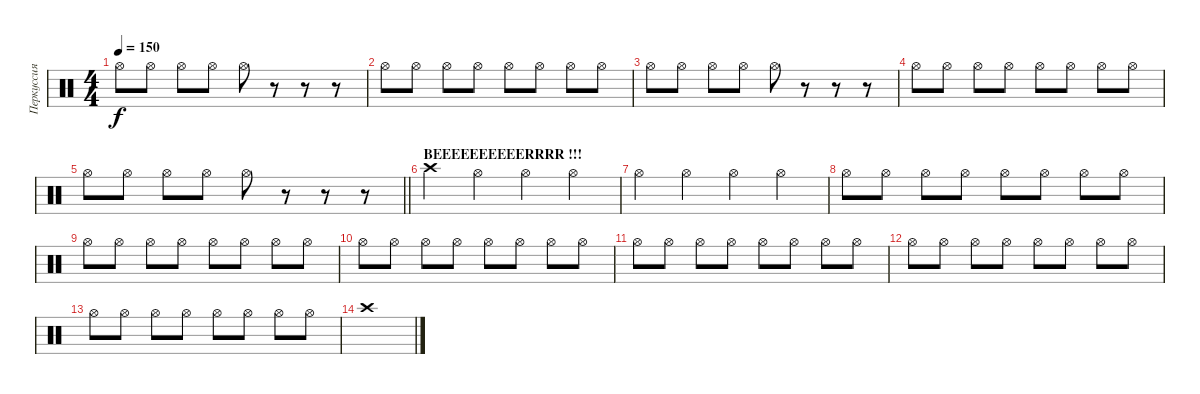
\track ("Перкуссия" "Перкуссия") {instrument percussion}
\staff {score}
\articulation defaults
\ts (4 4)
\tempo 150
\clef neutral
\ks c "Hi-Hat (open)".8{dy f} "Hi-Hat (open)".8 "Hi-Hat (open)".8 "Hi-Hat (open)".8 "Hi-Hat (open)".8
r.8 r.8 r.8 |
"Hi-Hat (open)".8 "Hi-Hat (open)".8 "Hi-Hat (open)".8 "Hi-Hat (open)".8 "Hi-Hat (open)".8 "Hi-Hat (open)".8 "Hi-Hat (open)".8 "Hi-Hat (open)".8 |
"Hi-Hat (open)".8 "Hi-Hat (open)".8 "Hi-Hat (open)".8 "Hi-Hat (open)".8 "Hi-Hat (open)".8 r.8 r.8 r.8 |
"Hi-Hat (open)".8 "Hi-Hat (open)".8 "Hi-Hat (open)".8 "Hi-Hat (open)".8 "Hi-Hat (open)".8 "Hi-Hat (open)".8 "Hi-Hat (open)".8 "Hi-Hat (open)".8 |
\barLineRight lightlight "Hi-Hat (open)".8 "Hi-Hat (open)".8 "Hi-Hat (open)".8 "Hi-Hat (open)".8 "Hi-Hat (open)".8
r.8 r.8 r.8 |
\section ("" "BEEEEEEEEEERRRR !!!")
"Crash high (hit)".4 "Hi-Hat (open)".4 "Hi-Hat (open)".4 "Hi-Hat (open)".4 |
"Hi-Hat (open)".4 "Hi-Hat (open)".4 "Hi-Hat (open)".4 "Hi-Hat (open)".4 |
"Hi-Hat (open)".8 "Hi-Hat (open)".8 "Hi-Hat (open)".8 "Hi-Hat (open)".8 "Hi-Hat (open)".8 "Hi-Hat (open)".8 "Hi-Hat (open)".8 "Hi-Hat (open)".8 |
"Hi-Hat (open)".8 "Hi-Hat (open)".8 "Hi-Hat (open)".8 "Hi-Hat (open)".8 "Hi-Hat (open)".8 "Hi-Hat (open)".8 "Hi-Hat (open)".8 "Hi-Hat (open)".8 |
"Hi-Hat (open)".8 "Hi-Hat (open)".8 "Hi-Hat (open)".8 "Hi-Hat (open)".8 "Hi-Hat (open)".8 "Hi-Hat (open)".8 "Hi-Hat (open)".8 "Hi-Hat (open)".8 |
"Hi-Hat (open)".8 "Hi-Hat (open)".8 "Hi-Hat (open)".8 "Hi-Hat (open)".8 "Hi-Hat (open)".8 "Hi-Hat (open)".8 "Hi-Hat (open)".8 "Hi-Hat (open)".8 |
"Hi-Hat (open)".8 "Hi-Hat (open)".8 "Hi-Hat (open)".8 "Hi-Hat (open)".8 "Hi-Hat (open)".8 "Hi-Hat (open)".8 "Hi-Hat (open)".8 "Hi-Hat (open)".8 |
"Hi-Hat (open)".8 "Hi-Hat (open)".8 "Hi-Hat (open)".8 "Hi-Hat (open)".8 "Hi-Hat (open)".8 "Hi-Hat (open)".8 "Hi-Hat (open)".8 "Hi-Hat (open)".8 |
"Crash high (hit)".1
